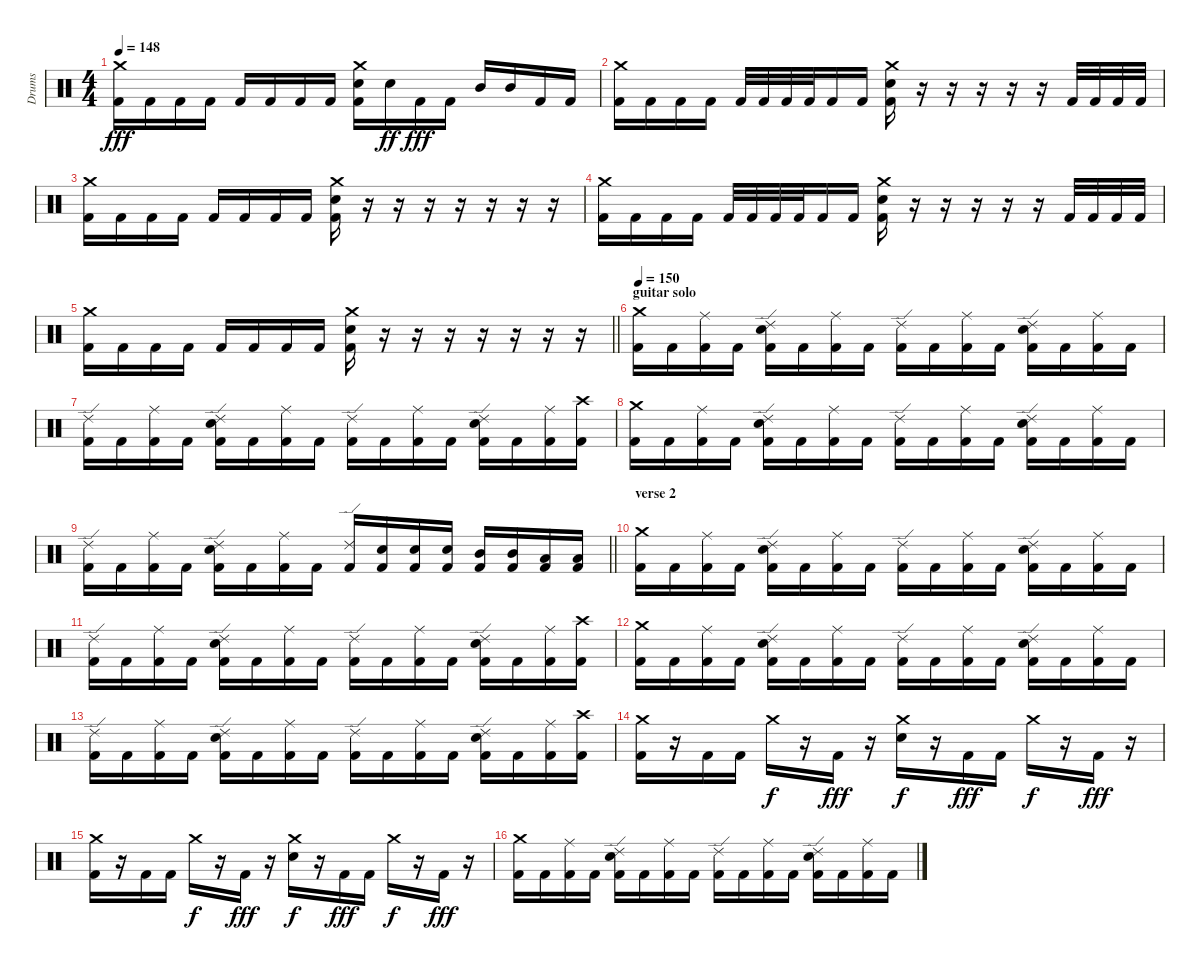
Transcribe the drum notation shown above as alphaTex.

\track ("Drums" "Drums") {instrument percussion}
\staff {score}
\articulation defaults
\ts (4 4)
\tempo 148
\clef neutral
\ks c
("Crash medium (hit)" "Kick (hit) 2").16{dy fff} "Kick (hit) 2".16 "Kick (hit) 2".16 "Kick (hit) 2".16 "Kick (hit) 2".16 "Kick (hit) 2".16 "Kick (hit) 2".16 "Kick (hit) 2".16 ("Crash medium (hit)" "Electric Snare (hit)" "Kick (hit) 2").16 "Electric Snare (hit)".16{dy ff} "Kick (hit) 2".16{dy fff} "Kick (hit) 2".16 "Mid Tom (hit)".16 "Mid Tom (hit)".16 "Kick (hit) 2".16 "Kick (hit) 2".16 |
("Crash medium (hit)" "Kick (hit) 2").16 "Kick (hit) 2".16 "Kick (hit) 2".16 "Kick (hit) 2".16 "Kick (hit) 2".32 "Kick (hit) 2".32 "Kick (hit) 2".32 "Kick (hit) 2".32 "Kick (hit) 2".16 "Kick (hit) 2".16 ("Crash medium (hit)" "Electric Snare (hit)" "Kick (hit) 2").16 r.16 r.16 r.16 r.16 r.16 "Kick (hit) 2".32 "Kick (hit) 2".32 "Kick (hit) 2".32 "Kick (hit) 2".32 |
("Crash medium (hit)" "Kick (hit) 2").16 "Kick (hit) 2".16 "Kick (hit) 2".16 "Kick (hit) 2".16 "Kick (hit) 2".16 "Kick (hit) 2".16 "Kick (hit) 2".16 "Kick (hit) 2".16 ("Crash medium (hit)" "Electric Snare (hit)" "Kick (hit) 2").16 r.16 r.16 r.16 r.16 r.16 r.16 r.16 |
("Crash medium (hit)" "Kick (hit) 2").16 "Kick (hit) 2".16 "Kick (hit) 2".16 "Kick (hit) 2".16 "Kick (hit) 2".32 "Kick (hit) 2".32 "Kick (hit) 2".32 "Kick (hit) 2".32 "Kick (hit) 2".16 "Kick (hit) 2".16 ("Crash medium (hit)" "Electric Snare (hit)" "Kick (hit) 2").16 r.16 r.16 r.16 r.16 r.16 "Kick (hit) 2".32 "Kick (hit) 2".32 "Kick (hit) 2".32 "Kick (hit) 2".32 |
\barLineRight lightlight
("Crash medium (hit)" "Kick (hit) 2").16 "Kick (hit) 2".16 "Kick (hit) 2".16 "Kick (hit) 2".16 "Kick (hit) 2".16 "Kick (hit) 2".16 "Kick (hit) 2".16 "Kick (hit) 2".16 ("Crash medium (hit)" "Electric Snare (hit)" "Kick (hit) 2").16 r.16 r.16 r.16 r.16 r.16 r.16 r.16 |
\section ("" "guitar solo")
\tempo 150
("Crash medium (hit)" "Kick (hit) 2").16 "Kick (hit) 2".16 ("Ride (middle)" "Kick (hit) 2").16 "Kick (hit) 2".16 ("Ride (edge) 2" "Electric Snare (hit)" "Kick (hit) 2").16 "Kick (hit) 2".16 ("Ride (middle)" "Kick (hit) 2").16 "Kick (hit) 2".16 ("Ride (edge) 2" "Kick (hit) 2").16 "Kick (hit) 2".16 ("Ride (middle)" "Kick (hit) 2").16 "Kick (hit) 2".16 ("Ride (edge) 2" "Electric Snare (hit)" "Kick (hit) 2").16 "Kick (hit) 2".16 ("Ride (middle)" "Kick (hit) 2").16 "Kick (hit) 2".16 |
("Ride (edge) 2" "Kick (hit) 2").16 "Kick (hit) 2".16 ("Ride (middle)" "Kick (hit) 2").16 "Kick (hit) 2".16 ("Ride (edge) 2" "Electric Snare (hit)" "Kick (hit) 2").16 "Kick (hit) 2".16 ("Ride (middle)" "Kick (hit) 2").16 "Kick (hit) 2".16 ("Ride (edge) 2" "Kick (hit) 2").16 "Kick (hit) 2".16 ("Ride (middle)" "Kick (hit) 2").16 "Kick (hit) 2".16 ("Ride (edge) 2" "Electric Snare (hit)" "Kick (hit) 2").16 "Kick (hit) 2".16 ("Ride (middle)" "Kick (hit) 2").16 ("Crash high (hit)" "Kick (hit) 2").16 |
("Crash medium (hit)" "Kick (hit) 2").16 "Kick (hit) 2".16 ("Ride (middle)" "Kick (hit) 2").16 "Kick (hit) 2".16 ("Ride (edge) 2" "Electric Snare (hit)" "Kick (hit) 2").16 "Kick (hit) 2".16 ("Ride (middle)" "Kick (hit) 2").16 "Kick (hit) 2".16 ("Ride (edge) 2" "Kick (hit) 2").16 "Kick (hit) 2".16 ("Ride (middle)" "Kick (hit) 2").16 "Kick (hit) 2".16 ("Ride (edge) 2" "Electric Snare (hit)" "Kick (hit) 2").16 "Kick (hit) 2".16 ("Ride (middle)" "Kick (hit) 2").16 "Kick (hit) 2".16 |
\barLineRight lightlight
("Ride (edge) 2" "Kick (hit) 2").16 "Kick (hit) 2".16 ("Ride (middle)" "Kick (hit) 2").16 "Kick (hit) 2".16 ("Ride (edge) 2" "Electric Snare (hit)" "Kick (hit) 2").16 "Kick (hit) 2".16 ("Ride (middle)" "Kick (hit) 2").16 "Kick (hit) 2".16 ("Ride (edge) 2" "Kick (hit) 2").16 ("Electric Snare (hit)" "Kick (hit) 2").16 ("Electric Snare (hit)" "Kick (hit) 2").16 ("Electric Snare (hit)" "Kick (hit) 2").16 ("Mid Tom (hit)" "Kick (hit) 2").16 ("Mid Tom (hit)" "Kick (hit) 2").16 ("Low Tom (hit)" "Kick (hit) 2").16 ("Low Tom (hit)" "Kick (hit) 2").16 |
\section ("" "verse 2")
("Crash medium (hit)" "Kick (hit) 2").16 "Kick (hit) 2".16 ("Ride (middle)" "Kick (hit) 2").16 "Kick (hit) 2".16 ("Ride (edge) 2" "Electric Snare (hit)" "Kick (hit) 2").16 "Kick (hit) 2".16 ("Ride (middle)" "Kick (hit) 2").16 "Kick (hit) 2".16 ("Ride (edge) 2" "Kick (hit) 2").16 "Kick (hit) 2".16 ("Ride (middle)" "Kick (hit) 2").16 "Kick (hit) 2".16 ("Ride (edge) 2" "Electric Snare (hit)" "Kick (hit) 2").16 "Kick (hit) 2".16 ("Ride (middle)" "Kick (hit) 2").16 "Kick (hit) 2".16 |
("Ride (edge) 2" "Kick (hit) 2").16 "Kick (hit) 2".16 ("Ride (middle)" "Kick (hit) 2").16 "Kick (hit) 2".16 ("Ride (edge) 2" "Electric Snare (hit)" "Kick (hit) 2").16 "Kick (hit) 2".16 ("Ride (middle)" "Kick (hit) 2").16 "Kick (hit) 2".16 ("Ride (edge) 2" "Kick (hit) 2").16 "Kick (hit) 2".16 ("Ride (middle)" "Kick (hit) 2").16 "Kick (hit) 2".16 ("Ride (edge) 2" "Electric Snare (hit)" "Kick (hit) 2").16 "Kick (hit) 2".16 ("Ride (middle)" "Kick (hit) 2").16 ("Crash high (hit)" "Kick (hit) 2").16 |
("Crash medium (hit)" "Kick (hit) 2").16 "Kick (hit) 2".16 ("Ride (middle)" "Kick (hit) 2").16 "Kick (hit) 2".16 ("Ride (edge) 2" "Electric Snare (hit)" "Kick (hit) 2").16 "Kick (hit) 2".16 ("Ride (middle)" "Kick (hit) 2").16 "Kick (hit) 2".16 ("Ride (edge) 2" "Kick (hit) 2").16 "Kick (hit) 2".16 ("Ride (middle)" "Kick (hit) 2").16 "Kick (hit) 2".16 ("Ride (edge) 2" "Electric Snare (hit)" "Kick (hit) 2").16 "Kick (hit) 2".16 ("Ride (middle)" "Kick (hit) 2").16 "Kick (hit) 2".16 |
("Ride (edge) 2" "Kick (hit) 2").16 "Kick (hit) 2".16 ("Ride (middle)" "Kick (hit) 2").16 "Kick (hit) 2".16 ("Ride (edge) 2" "Electric Snare (hit)" "Kick (hit) 2").16 "Kick (hit) 2".16 ("Ride (middle)" "Kick (hit) 2").16 "Kick (hit) 2".16 ("Ride (edge) 2" "Kick (hit) 2").16 "Kick (hit) 2".16 ("Ride (middle)" "Kick (hit) 2").16 "Kick (hit) 2".16 ("Ride (edge) 2" "Electric Snare (hit)" "Kick (hit) 2").16 "Kick (hit) 2".16 ("Ride (middle)" "Kick (hit) 2").16 ("Crash high (hit)" "Kick (hit) 2").16 |
("Crash medium (hit)" "Kick (hit) 2").16 r.16 "Kick (hit) 2".16 "Kick (hit) 2".16 "Crash medium (hit)".16{dy f} r.16 "Kick (hit) 2".16{dy fff} r.16 ("Crash medium (hit)" "Electric Snare (hit)").16{dy f} r.16 "Kick (hit) 2".16{dy fff} "Kick (hit) 2".16 "Crash medium (hit)".16{dy f} r.16 "Kick (hit) 2".16{dy fff} r.16 |
("Crash medium (hit)" "Kick (hit) 2").16 r.16 "Kick (hit) 2".16 "Kick (hit) 2".16 "Crash medium (hit)".16{dy f} r.16 "Kick (hit) 2".16{dy fff} r.16 ("Crash medium (hit)" "Electric Snare (hit)").16{dy f} r.16 "Kick (hit) 2".16{dy fff} "Kick (hit) 2".16 "Crash medium (hit)".16{dy f} r.16 "Kick (hit) 2".16{dy fff} r.16 |
("Crash medium (hit)" "Kick (hit) 2").16 "Kick (hit) 2".16 ("Ride (middle)" "Kick (hit) 2").16 "Kick (hit) 2".16 ("Ride (edge) 2" "Electric Snare (hit)" "Kick (hit) 2").16 "Kick (hit) 2".16 ("Ride (middle)" "Kick (hit) 2").16 "Kick (hit) 2".16 ("Ride (edge) 2" "Kick (hit) 2").16 "Kick (hit) 2".16 ("Ride (middle)" "Kick (hit) 2").16 "Kick (hit) 2".16 ("Ride (edge) 2" "Electric Snare (hit)" "Kick (hit) 2").16 "Kick (hit) 2".16 ("Ride (middle)" "Kick (hit) 2").16 "Kick (hit) 2".16
